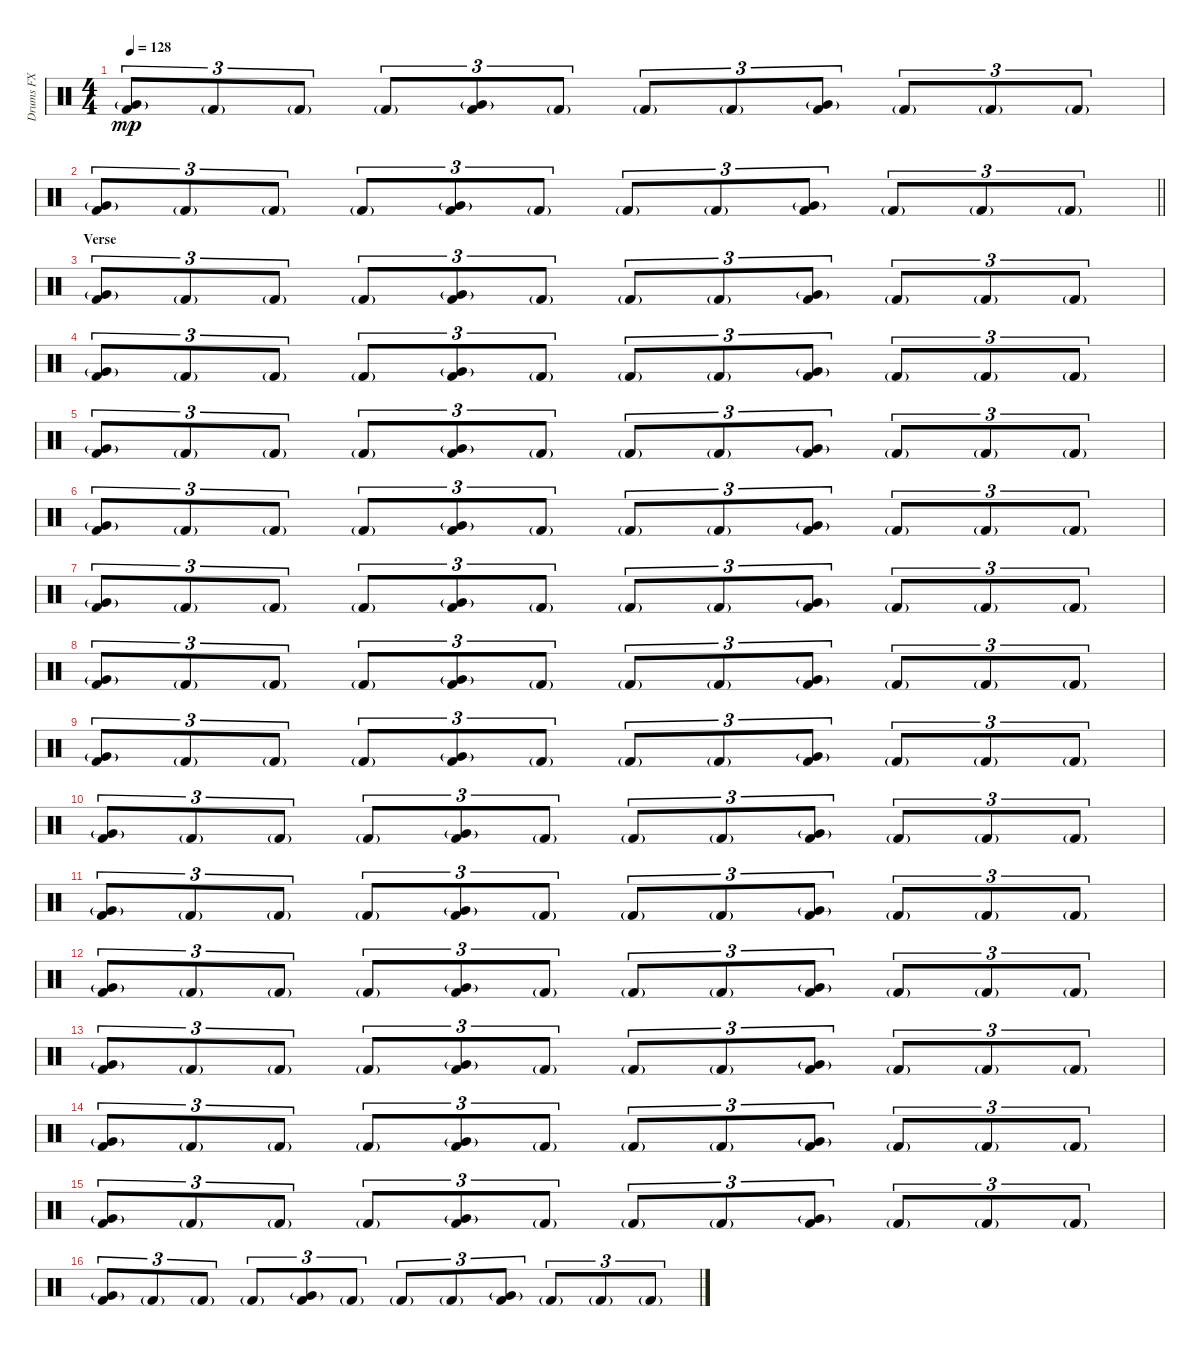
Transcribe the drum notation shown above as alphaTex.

\track ("Drums FX" "Drums FX") {instrument percussion}
\staff {score}
\articulation defaults
\ts (4 4)
\tempo 128
\clef neutral
\ks c
("Very Low Tom (hit)"{g} "Kick (hit) 2").8{tu (3 2) dy mp} "Kick (hit) 2"{g}.8{tu (3 2)} "Kick (hit) 2"{g}.8{tu (3 2)} "Kick (hit) 2"{g}.8{tu (3 2)} ("Very Low Tom (hit)"{g} "Kick (hit) 2").8{tu (3 2)} "Kick (hit) 2"{g}.8{tu (3 2)} "Kick (hit) 2"{g}.8{tu (3 2)} "Kick (hit) 2"{g}.8{tu (3 2)} ("Very Low Tom (hit)"{g} "Kick (hit) 2").8{tu (3 2)} "Kick (hit) 2"{g}.8{tu (3 2)} "Kick (hit) 2"{g}.8{tu (3 2)} "Kick (hit) 2"{g}.8{tu (3 2)} |
\barLineRight lightlight
("Very Low Tom (hit)"{g} "Kick (hit) 2").8{tu (3 2)} "Kick (hit) 2"{g}.8{tu (3 2)} "Kick (hit) 2"{g}.8{tu (3 2)} "Kick (hit) 2"{g}.8{tu (3 2)} ("Very Low Tom (hit)"{g} "Kick (hit) 2").8{tu (3 2)} "Kick (hit) 2"{g}.8{tu (3 2)} "Kick (hit) 2"{g}.8{tu (3 2)} "Kick (hit) 2"{g}.8{tu (3 2)} ("Very Low Tom (hit)"{g} "Kick (hit) 2").8{tu (3 2)} "Kick (hit) 2"{g}.8{tu (3 2)} "Kick (hit) 2"{g}.8{tu (3 2)} "Kick (hit) 2"{g}.8{tu (3 2)} |
\section ("" "Verse")
("Very Low Tom (hit)"{g} "Kick (hit) 2").8{tu (3 2)} "Kick (hit) 2"{g}.8{tu (3 2)} "Kick (hit) 2"{g}.8{tu (3 2)} "Kick (hit) 2"{g}.8{tu (3 2)} ("Very Low Tom (hit)"{g} "Kick (hit) 2").8{tu (3 2)} "Kick (hit) 2"{g}.8{tu (3 2)} "Kick (hit) 2"{g}.8{tu (3 2)} "Kick (hit) 2"{g}.8{tu (3 2)} ("Very Low Tom (hit)"{g} "Kick (hit) 2").8{tu (3 2)} "Kick (hit) 2"{g}.8{tu (3 2)} "Kick (hit) 2"{g}.8{tu (3 2)} "Kick (hit) 2"{g}.8{tu (3 2)} |
("Very Low Tom (hit)"{g} "Kick (hit) 2").8{tu (3 2)} "Kick (hit) 2"{g}.8{tu (3 2)} "Kick (hit) 2"{g}.8{tu (3 2)} "Kick (hit) 2"{g}.8{tu (3 2)} ("Very Low Tom (hit)"{g} "Kick (hit) 2").8{tu (3 2)} "Kick (hit) 2"{g}.8{tu (3 2)} "Kick (hit) 2"{g}.8{tu (3 2)} "Kick (hit) 2"{g}.8{tu (3 2)} ("Very Low Tom (hit)"{g} "Kick (hit) 2").8{tu (3 2)} "Kick (hit) 2"{g}.8{tu (3 2)} "Kick (hit) 2"{g}.8{tu (3 2)} "Kick (hit) 2"{g}.8{tu (3 2)} |
("Very Low Tom (hit)"{g} "Kick (hit) 2").8{tu (3 2)} "Kick (hit) 2"{g}.8{tu (3 2)} "Kick (hit) 2"{g}.8{tu (3 2)} "Kick (hit) 2"{g}.8{tu (3 2)} ("Very Low Tom (hit)"{g} "Kick (hit) 2").8{tu (3 2)} "Kick (hit) 2"{g}.8{tu (3 2)} "Kick (hit) 2"{g}.8{tu (3 2)} "Kick (hit) 2"{g}.8{tu (3 2)} ("Very Low Tom (hit)"{g} "Kick (hit) 2").8{tu (3 2)} "Kick (hit) 2"{g}.8{tu (3 2)} "Kick (hit) 2"{g}.8{tu (3 2)} "Kick (hit) 2"{g}.8{tu (3 2)} |
("Very Low Tom (hit)"{g} "Kick (hit) 2").8{tu (3 2)} "Kick (hit) 2"{g}.8{tu (3 2)} "Kick (hit) 2"{g}.8{tu (3 2)} "Kick (hit) 2"{g}.8{tu (3 2)} ("Very Low Tom (hit)"{g} "Kick (hit) 2").8{tu (3 2)} "Kick (hit) 2"{g}.8{tu (3 2)} "Kick (hit) 2"{g}.8{tu (3 2)} "Kick (hit) 2"{g}.8{tu (3 2)} ("Very Low Tom (hit)"{g} "Kick (hit) 2").8{tu (3 2)} "Kick (hit) 2"{g}.8{tu (3 2)} "Kick (hit) 2"{g}.8{tu (3 2)} "Kick (hit) 2"{g}.8{tu (3 2)} |
("Very Low Tom (hit)"{g} "Kick (hit) 2").8{tu (3 2)} "Kick (hit) 2"{g}.8{tu (3 2)} "Kick (hit) 2"{g}.8{tu (3 2)} "Kick (hit) 2"{g}.8{tu (3 2)} ("Very Low Tom (hit)"{g} "Kick (hit) 2").8{tu (3 2)} "Kick (hit) 2"{g}.8{tu (3 2)} "Kick (hit) 2"{g}.8{tu (3 2)} "Kick (hit) 2"{g}.8{tu (3 2)} ("Very Low Tom (hit)"{g} "Kick (hit) 2").8{tu (3 2)} "Kick (hit) 2"{g}.8{tu (3 2)} "Kick (hit) 2"{g}.8{tu (3 2)} "Kick (hit) 2"{g}.8{tu (3 2)} |
("Very Low Tom (hit)"{g} "Kick (hit) 2").8{tu (3 2)} "Kick (hit) 2"{g}.8{tu (3 2)} "Kick (hit) 2"{g}.8{tu (3 2)} "Kick (hit) 2"{g}.8{tu (3 2)} ("Very Low Tom (hit)"{g} "Kick (hit) 2").8{tu (3 2)} "Kick (hit) 2"{g}.8{tu (3 2)} "Kick (hit) 2"{g}.8{tu (3 2)} "Kick (hit) 2"{g}.8{tu (3 2)} ("Very Low Tom (hit)"{g} "Kick (hit) 2").8{tu (3 2)} "Kick (hit) 2"{g}.8{tu (3 2)} "Kick (hit) 2"{g}.8{tu (3 2)} "Kick (hit) 2"{g}.8{tu (3 2)} |
("Very Low Tom (hit)"{g} "Kick (hit) 2").8{tu (3 2)} "Kick (hit) 2"{g}.8{tu (3 2)} "Kick (hit) 2"{g}.8{tu (3 2)} "Kick (hit) 2"{g}.8{tu (3 2)} ("Very Low Tom (hit)"{g} "Kick (hit) 2").8{tu (3 2)} "Kick (hit) 2"{g}.8{tu (3 2)} "Kick (hit) 2"{g}.8{tu (3 2)} "Kick (hit) 2"{g}.8{tu (3 2)} ("Very Low Tom (hit)"{g} "Kick (hit) 2").8{tu (3 2)} "Kick (hit) 2"{g}.8{tu (3 2)} "Kick (hit) 2"{g}.8{tu (3 2)} "Kick (hit) 2"{g}.8{tu (3 2)} |
("Very Low Tom (hit)"{g} "Kick (hit) 2").8{tu (3 2)} "Kick (hit) 2"{g}.8{tu (3 2)} "Kick (hit) 2"{g}.8{tu (3 2)} "Kick (hit) 2"{g}.8{tu (3 2)} ("Very Low Tom (hit)"{g} "Kick (hit) 2").8{tu (3 2)} "Kick (hit) 2"{g}.8{tu (3 2)} "Kick (hit) 2"{g}.8{tu (3 2)} "Kick (hit) 2"{g}.8{tu (3 2)} ("Very Low Tom (hit)"{g} "Kick (hit) 2").8{tu (3 2)} "Kick (hit) 2"{g}.8{tu (3 2)} "Kick (hit) 2"{g}.8{tu (3 2)} "Kick (hit) 2"{g}.8{tu (3 2)} |
("Very Low Tom (hit)"{g} "Kick (hit) 2").8{tu (3 2)} "Kick (hit) 2"{g}.8{tu (3 2)} "Kick (hit) 2"{g}.8{tu (3 2)} "Kick (hit) 2"{g}.8{tu (3 2)} ("Very Low Tom (hit)"{g} "Kick (hit) 2").8{tu (3 2)} "Kick (hit) 2"{g}.8{tu (3 2)} "Kick (hit) 2"{g}.8{tu (3 2)} "Kick (hit) 2"{g}.8{tu (3 2)} ("Very Low Tom (hit)"{g} "Kick (hit) 2").8{tu (3 2)} "Kick (hit) 2"{g}.8{tu (3 2)} "Kick (hit) 2"{g}.8{tu (3 2)} "Kick (hit) 2"{g}.8{tu (3 2)} |
("Very Low Tom (hit)"{g} "Kick (hit) 2").8{tu (3 2)} "Kick (hit) 2"{g}.8{tu (3 2)} "Kick (hit) 2"{g}.8{tu (3 2)} "Kick (hit) 2"{g}.8{tu (3 2)} ("Very Low Tom (hit)"{g} "Kick (hit) 2").8{tu (3 2)} "Kick (hit) 2"{g}.8{tu (3 2)} "Kick (hit) 2"{g}.8{tu (3 2)} "Kick (hit) 2"{g}.8{tu (3 2)} ("Very Low Tom (hit)"{g} "Kick (hit) 2").8{tu (3 2)} "Kick (hit) 2"{g}.8{tu (3 2)} "Kick (hit) 2"{g}.8{tu (3 2)} "Kick (hit) 2"{g}.8{tu (3 2)} |
("Very Low Tom (hit)"{g} "Kick (hit) 2").8{tu (3 2)} "Kick (hit) 2"{g}.8{tu (3 2)} "Kick (hit) 2"{g}.8{tu (3 2)} "Kick (hit) 2"{g}.8{tu (3 2)} ("Very Low Tom (hit)"{g} "Kick (hit) 2").8{tu (3 2)} "Kick (hit) 2"{g}.8{tu (3 2)} "Kick (hit) 2"{g}.8{tu (3 2)} "Kick (hit) 2"{g}.8{tu (3 2)} ("Very Low Tom (hit)"{g} "Kick (hit) 2").8{tu (3 2)} "Kick (hit) 2"{g}.8{tu (3 2)} "Kick (hit) 2"{g}.8{tu (3 2)} "Kick (hit) 2"{g}.8{tu (3 2)} |
("Very Low Tom (hit)"{g} "Kick (hit) 2").8{tu (3 2)} "Kick (hit) 2"{g}.8{tu (3 2)} "Kick (hit) 2"{g}.8{tu (3 2)} "Kick (hit) 2"{g}.8{tu (3 2)} ("Very Low Tom (hit)"{g} "Kick (hit) 2").8{tu (3 2)} "Kick (hit) 2"{g}.8{tu (3 2)} "Kick (hit) 2"{g}.8{tu (3 2)} "Kick (hit) 2"{g}.8{tu (3 2)} ("Very Low Tom (hit)"{g} "Kick (hit) 2").8{tu (3 2)} "Kick (hit) 2"{g}.8{tu (3 2)} "Kick (hit) 2"{g}.8{tu (3 2)} "Kick (hit) 2"{g}.8{tu (3 2)} |
("Very Low Tom (hit)"{g} "Kick (hit) 2").8{tu (3 2)} "Kick (hit) 2"{g}.8{tu (3 2)} "Kick (hit) 2"{g}.8{tu (3 2)} "Kick (hit) 2"{g}.8{tu (3 2)} ("Very Low Tom (hit)"{g} "Kick (hit) 2").8{tu (3 2)} "Kick (hit) 2"{g}.8{tu (3 2)} "Kick (hit) 2"{g}.8{tu (3 2)} "Kick (hit) 2"{g}.8{tu (3 2)} ("Very Low Tom (hit)"{g} "Kick (hit) 2").8{tu (3 2)} "Kick (hit) 2"{g}.8{tu (3 2)} "Kick (hit) 2"{g}.8{tu (3 2)} "Kick (hit) 2"{g}.8{tu (3 2)} |
("Very Low Tom (hit)"{g} "Kick (hit) 2").8{tu (3 2)} "Kick (hit) 2"{g}.8{tu (3 2)} "Kick (hit) 2"{g}.8{tu (3 2)} "Kick (hit) 2"{g}.8{tu (3 2)} ("Very Low Tom (hit)"{g} "Kick (hit) 2").8{tu (3 2)} "Kick (hit) 2"{g}.8{tu (3 2)} "Kick (hit) 2"{g}.8{tu (3 2)} "Kick (hit) 2"{g}.8{tu (3 2)} ("Very Low Tom (hit)"{g} "Kick (hit) 2").8{tu (3 2)} "Kick (hit) 2"{g}.8{tu (3 2)} "Kick (hit) 2"{g}.8{tu (3 2)} "Kick (hit) 2"{g}.8{tu (3 2)}
